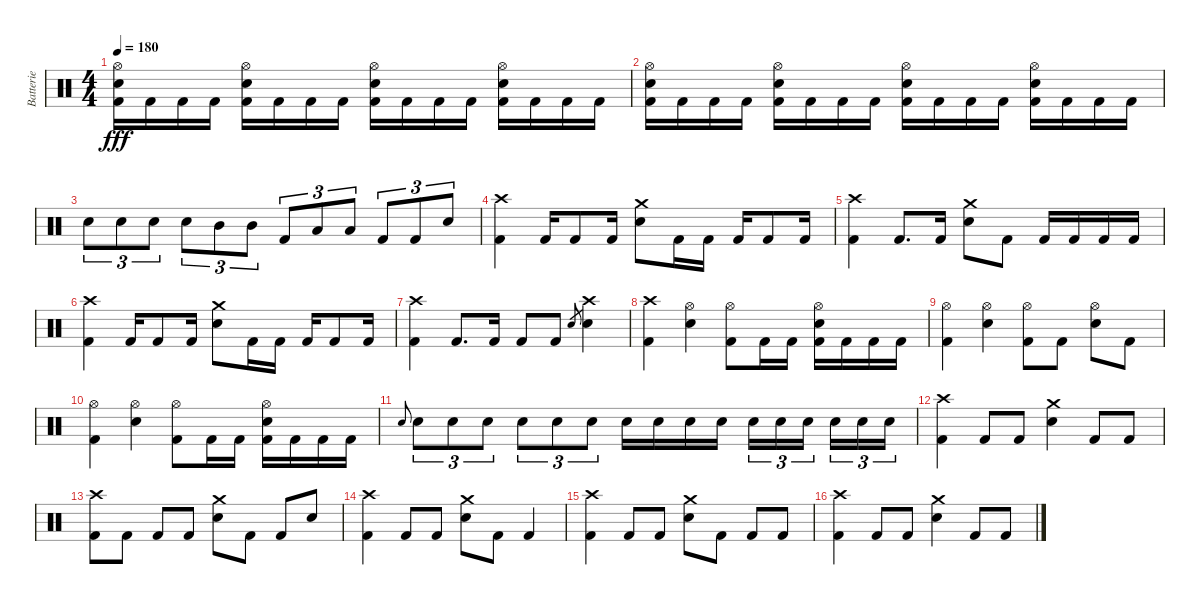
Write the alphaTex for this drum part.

\track ("Batterie" "Batterie") {instrument percussion}
\staff {score}
\articulation defaults
\ts (4 4)
\tempo 180
\clef neutral
\ks c
("Hi-Hat (open)" "Electric Snare (hit)" "Kick (hit) 2").16{dy fff} "Kick (hit) 2".16 "Kick (hit) 2".16 "Kick (hit) 2".16 ("Hi-Hat (open)" "Electric Snare (hit)" "Kick (hit) 2").16 "Kick (hit) 2".16 "Kick (hit) 2".16 "Kick (hit) 2".16 ("Hi-Hat (open)" "Electric Snare (hit)" "Kick (hit) 2").16 "Kick (hit) 2".16 "Kick (hit) 2".16 "Kick (hit) 2".16 ("Hi-Hat (open)" "Electric Snare (hit)" "Kick (hit) 2").16 "Kick (hit) 2".16 "Kick (hit) 2".16 "Kick (hit) 2".16 |
("Hi-Hat (open)" "Electric Snare (hit)" "Kick (hit) 2").16 "Kick (hit) 2".16 "Kick (hit) 2".16 "Kick (hit) 2".16 ("Hi-Hat (open)" "Electric Snare (hit)" "Kick (hit) 2").16 "Kick (hit) 2".16 "Kick (hit) 2".16 "Kick (hit) 2".16 ("Hi-Hat (open)" "Electric Snare (hit)" "Kick (hit) 2").16 "Kick (hit) 2".16 "Kick (hit) 2".16 "Kick (hit) 2".16 ("Hi-Hat (open)" "Electric Snare (hit)" "Kick (hit) 2").16 "Kick (hit) 2".16 "Kick (hit) 2".16 "Kick (hit) 2".16 |
"Electric Snare (hit)".8{tu (3 2)} "Electric Snare (hit)".8{tu (3 2)} "Electric Snare (hit)".8{tu (3 2)} "Electric Snare (hit)".8{tu (3 2)} "Mid Tom (hit)".8{tu (3 2)} "Mid Tom (hit)".8{tu (3 2)} "Kick (hit) 2".8{tu (3 2)} "Low Tom (hit)".8{tu (3 2)} "Low Tom (hit)".8{tu (3 2)} "Kick (hit) 2".8{tu (3 2)} "Kick (hit) 2".8{tu (3 2)} "Electric Snare (hit)".8{tu (3 2)} |
("Crash high (hit)" "Kick (hit) 2").4 "Kick (hit) 2".16 "Kick (hit) 2".8 "Kick (hit) 2".16 ("Crash medium (hit)" "Electric Snare (hit)").8 "Kick (hit) 2".16 "Kick (hit) 2".16 "Kick (hit) 2".16 "Kick (hit) 2".8 "Kick (hit) 2".16 |
("Crash high (hit)" "Kick (hit) 2").4 "Kick (hit) 2".8{d} "Kick (hit) 2".16 ("Crash medium (hit)" "Electric Snare (hit)").8 "Kick (hit) 2".8 "Kick (hit) 2".16 "Kick (hit) 2".16 "Kick (hit) 2".16 "Kick (hit) 2".16 |
("Crash high (hit)" "Kick (hit) 2").4 "Kick (hit) 2".16 "Kick (hit) 2".8 "Kick (hit) 2".16 ("Crash medium (hit)" "Electric Snare (hit)").8 "Kick (hit) 2".16 "Kick (hit) 2".16 "Kick (hit) 2".16 "Kick (hit) 2".8 "Kick (hit) 2".16 |
("Crash high (hit)" "Kick (hit) 2").4 "Kick (hit) 2".8{d} "Kick (hit) 2".16 "Kick (hit) 2".8 "Kick (hit) 2".8 "Electric Snare (hit)".8{gr} ("Crash high (hit)" "Electric Snare (hit)").4 |
("Crash high (hit)" "Kick (hit) 2").4 ("Hi-Hat (open)" "Electric Snare (hit)").4 ("Hi-Hat (open)" "Kick (hit) 2").8 "Kick (hit) 2".16 "Kick (hit) 2".16 ("Hi-Hat (open)" "Electric Snare (hit)" "Kick (hit) 2").16 "Kick (hit) 2".16 "Kick (hit) 2".16 "Kick (hit) 2".16 |
("Hi-Hat (open)" "Kick (hit) 2").4 ("Hi-Hat (open)" "Electric Snare (hit)").4 ("Hi-Hat (open)" "Kick (hit) 2").8 "Kick (hit) 2".8 ("Hi-Hat (open)" "Electric Snare (hit)").8 "Kick (hit) 2".8 |
("Hi-Hat (open)" "Kick (hit) 2").4 ("Hi-Hat (open)" "Electric Snare (hit)").4 ("Hi-Hat (open)" "Kick (hit) 2").8 "Kick (hit) 2".16 "Kick (hit) 2".16 ("Hi-Hat (open)" "Electric Snare (hit)" "Kick (hit) 2").16 "Kick (hit) 2".16 "Kick (hit) 2".16 "Kick (hit) 2".16 |
"Electric Snare (hit)".8{gr onbeat} "Electric Snare (hit)".8{tu (3 2)} "Electric Snare (hit)".8{tu (3 2)} "Electric Snare (hit)".8{tu (3 2)} "Electric Snare (hit)".8{tu (3 2)} "Electric Snare (hit)".8{tu (3 2)} "Electric Snare (hit)".8{tu (3 2)} "Electric Snare (hit)".16 "Electric Snare (hit)".16 "Electric Snare (hit)".16 "Electric Snare (hit)".16 "Electric Snare (hit)".16{tu (3 2)} "Electric Snare (hit)".16{tu (3 2)} "Electric Snare (hit)".16{tu (3 2) beam splitsecondary} "Electric Snare (hit)".16{tu (3 2)} "Electric Snare (hit)".16{tu (3 2)} "Electric Snare (hit)".16{tu (3 2)} |
("Crash high (hit)" "Kick (hit) 2").4 "Kick (hit) 2".8 "Kick (hit) 2".8 ("Crash medium (hit)" "Electric Snare (hit)").4 "Kick (hit) 2".8 "Kick (hit) 2".8 |
("Crash high (hit)" "Kick (hit) 2").8 "Kick (hit) 2".8 "Kick (hit) 2".8 "Kick (hit) 2".8 ("Crash medium (hit)" "Electric Snare (hit)").8 "Kick (hit) 2".8 "Kick (hit) 2".8 "Electric Snare (hit)".8 |
("Crash high (hit)" "Kick (hit) 2").4 "Kick (hit) 2".8 "Kick (hit) 2".8 ("Crash medium (hit)" "Electric Snare (hit)").8 "Kick (hit) 2".8 "Kick (hit) 2".4 |
("Crash high (hit)" "Kick (hit) 2").4 "Kick (hit) 2".8 "Kick (hit) 2".8 ("Crash medium (hit)" "Electric Snare (hit)").8 "Kick (hit) 2".8 "Kick (hit) 2".8 "Kick (hit) 2".8 |
("Crash high (hit)" "Kick (hit) 2").4 "Kick (hit) 2".8 "Kick (hit) 2".8 ("Crash medium (hit)" "Electric Snare (hit)").4 "Kick (hit) 2".8 "Kick (hit) 2".8
